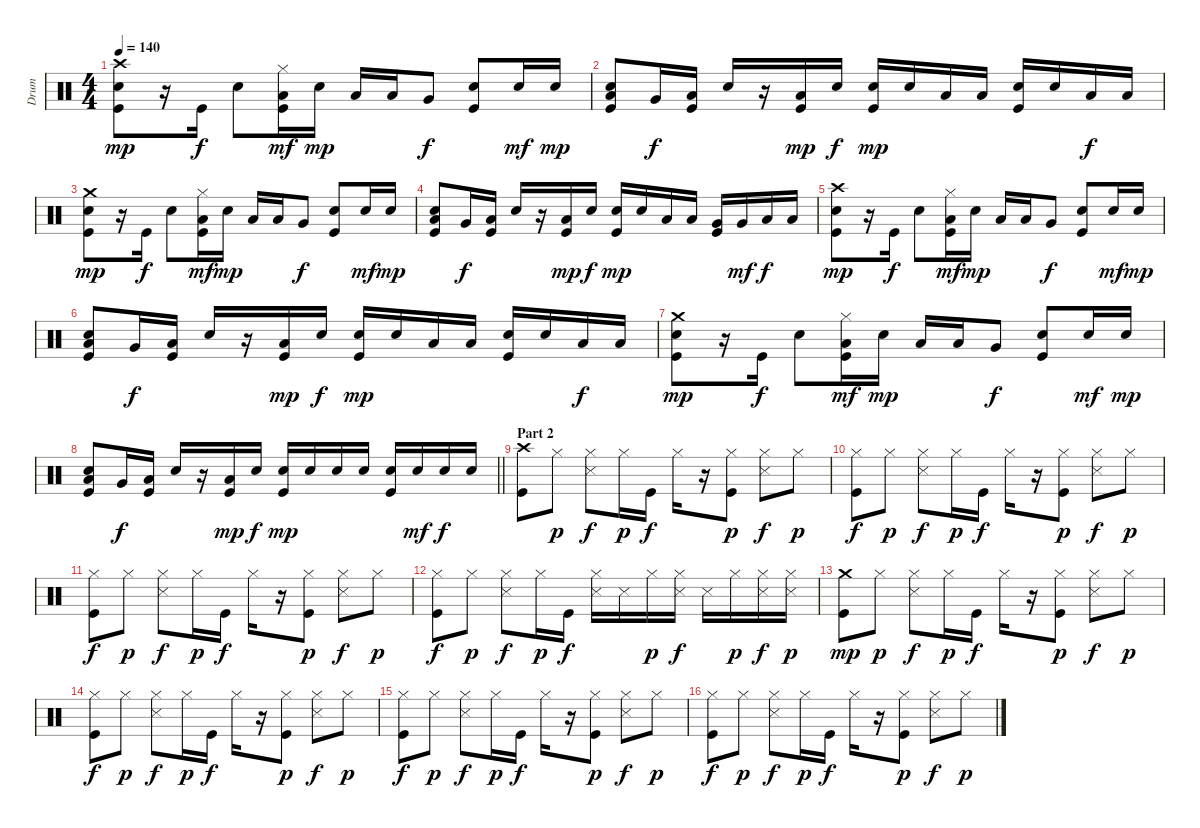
\track ("Drum" "Drum") {instrument percussion}
\staff {score}
\articulation defaults
\ts (4 4)
\tempo 140
\clef neutral
\ks c
("Crash high (hit)" "Electric Snare (hit)" "Kick (hit)").8{dy mp} r.16 "Kick (hit)".16{dy f} "Electric Snare (hit)".8 ("Low Tom (hit)" "Hi-Hat (closed)" "Kick (hit)").16{dy mf} "Electric Snare (hit)".16{dy mp} "Low Tom (hit)".16 "Low Floor Tom (hit)".16 "Very Low Tom (hit)".8{dy f} ("Electric Snare (hit)" "Kick (hit)").8 "Electric Snare (hit)".16{dy mf} "Electric Snare (hit)".16{dy mp} |
("Low Tom (hit)" "Electric Snare (hit)" "Kick (hit)").8 "Very Low Tom (hit)".16{dy f} ("Low Floor Tom (hit)" "Kick (hit)").16 "Electric Snare (hit)".16 r.16 ("Low Tom (hit)" "Kick (hit)").16{dy mp} "Electric Snare (hit)".16{dy f} ("Electric Snare (hit)" "Kick (hit)").16{dy mp} "Electric Snare (hit)".16 "Low Tom (hit)".16 "Low Tom (hit)".16 ("Electric Snare (hit)" "Kick (hit)").16 "Electric Snare (hit)".16 "Low Floor Tom (hit)".16{dy f} "Low Floor Tom (hit)".16 |
("Crash medium (hit)" "Electric Snare (hit)" "Kick (hit)").8{dy mp} r.16 "Kick (hit)".16{dy f} "Electric Snare (hit)".8 ("Low Tom (hit)" "Hi-Hat (closed)" "Kick (hit)").16{dy mf} "Electric Snare (hit)".16{dy mp} "Low Tom (hit)".16 "Low Floor Tom (hit)".16 "Very Low Tom (hit)".8{dy f} ("Electric Snare (hit)" "Kick (hit)").8 "Electric Snare (hit)".16{dy mf} "Electric Snare (hit)".16{dy mp} |
("Low Tom (hit)" "Electric Snare (hit)" "Kick (hit)").8 "Very Low Tom (hit)".16{dy f} ("Low Floor Tom (hit)" "Kick (hit)").16 "Electric Snare (hit)".16 r.16 ("Low Tom (hit)" "Kick (hit)").16{dy mp} "Electric Snare (hit)".16{dy f} ("Electric Snare (hit)" "Kick (hit)").16{dy mp} "Electric Snare (hit)".16 "Low Tom (hit)".16 "Low Tom (hit)".16 ("Very Low Tom (hit)" "Kick (hit)").16 "Very Low Tom (hit)".16{dy mf} "Low Floor Tom (hit)".16{dy f} "Low Floor Tom (hit)".16 |
("Crash high (hit)" "Electric Snare (hit)" "Kick (hit)").8{dy mp} r.16 "Kick (hit)".16{dy f} "Electric Snare (hit)".8 ("Low Tom (hit)" "Hi-Hat (closed)" "Kick (hit)").16{dy mf} "Electric Snare (hit)".16{dy mp} "Low Tom (hit)".16 "Low Floor Tom (hit)".16 "Very Low Tom (hit)".8{dy f} ("Electric Snare (hit)" "Kick (hit)").8 "Electric Snare (hit)".16{dy mf} "Electric Snare (hit)".16{dy mp} |
("Low Tom (hit)" "Electric Snare (hit)" "Kick (hit)").8 "Very Low Tom (hit)".16{dy f} ("Low Floor Tom (hit)" "Kick (hit)").16 "Electric Snare (hit)".16 r.16 ("Low Tom (hit)" "Kick (hit)").16{dy mp} "Electric Snare (hit)".16{dy f} ("Electric Snare (hit)" "Kick (hit)").16{dy mp} "Electric Snare (hit)".16 "Low Tom (hit)".16 "Low Tom (hit)".16 ("Electric Snare (hit)" "Kick (hit)").16 "Electric Snare (hit)".16 "Low Floor Tom (hit)".16{dy f} "Low Floor Tom (hit)".16 |
("Crash medium (hit)" "Electric Snare (hit)" "Kick (hit)").8{dy mp} r.16 "Kick (hit)".16{dy f} "Electric Snare (hit)".8 ("Low Tom (hit)" "Hi-Hat (closed)" "Kick (hit)").16{dy mf} "Electric Snare (hit)".16{dy mp} "Low Tom (hit)".16 "Low Floor Tom (hit)".16 "Very Low Tom (hit)".8{dy f} ("Electric Snare (hit)" "Kick (hit)").8 "Electric Snare (hit)".16{dy mf} "Electric Snare (hit)".16{dy mp} |
\barLineRight lightlight
("Low Tom (hit)" "Electric Snare (hit)" "Kick (hit)").8 "Very Low Tom (hit)".16{dy f} ("Low Floor Tom (hit)" "Kick (hit)").16 "Electric Snare (hit)".16 r.16 ("Low Tom (hit)" "Kick (hit)").16{dy mp} "Electric Snare (hit)".16{dy f} ("Electric Snare (hit)" "Kick (hit)").16{dy mp} "Electric Snare (hit)".16 "Snare (hit) 2".16 "Snare (hit) 2".16 ("Electric Snare (hit)" "Kick (hit)").16 "Electric Snare (hit)".16{dy mf} "Electric Snare (hit)".16{dy f} "Electric Snare (hit)".16 |
\section ("" "Part 2")
("Crash high (hit)" "Kick (hit)").8 "Hi-Hat (closed)".8{dy p} ("Hi-Hat (closed)" "Snare (side stick) 3").8{dy f} "Hi-Hat (closed)".16{dy p} "Kick (hit)".16{dy f} "Hi-Hat (closed)".16 r.16 ("Hi-Hat (closed)" "Kick (hit)").8{dy p} ("Hi-Hat (closed)" "Snare (side stick) 3").8{dy f} "Hi-Hat (closed)".8{dy p} |
("Hi-Hat (closed)" "Kick (hit)").8{dy f} "Hi-Hat (closed)".8{dy p} ("Hi-Hat (closed)" "Snare (side stick) 3").8{dy f} "Hi-Hat (closed)".16{dy p} "Kick (hit)".16{dy f} "Hi-Hat (closed)".16 r.16 ("Hi-Hat (closed)" "Kick (hit)").8{dy p} ("Hi-Hat (closed)" "Snare (side stick) 3").8{dy f} "Hi-Hat (closed)".8{dy p} |
("Hi-Hat (closed)" "Kick (hit)").8{dy f} "Hi-Hat (closed)".8{dy p} ("Hi-Hat (closed)" "Snare (side stick) 3").8{dy f} "Hi-Hat (closed)".16{dy p} "Kick (hit)".16{dy f} "Hi-Hat (closed)".16 r.16 ("Hi-Hat (closed)" "Kick (hit)").8{dy p} ("Hi-Hat (closed)" "Snare (side stick) 3").8{dy f} "Hi-Hat (closed)".8{dy p} |
("Hi-Hat (closed)" "Kick (hit)").8{dy f} "Hi-Hat (closed)".8{dy p} ("Hi-Hat (closed)" "Snare (side stick) 3").8{dy f} "Hi-Hat (closed)".16{dy p} "Kick (hit)".16{dy f} ("Hi-Hat (closed)" "Metronome (hit)").16 "Snare (side stick) 3".16 "Hi-Hat (closed)".16{dy p} ("Hi-Hat (closed)" "Metronome (hit)").16{dy f} "Snare (side stick) 3".16 "Hi-Hat (closed)".16{dy p} ("Hi-Hat (closed)" "Metronome (hit)").16{dy f} ("Hi-Hat (closed)" "Snare (side stick) 3").16{dy p} |
("Crash medium (hit)" "Kick (hit)").8{dy mp} "Hi-Hat (closed)".8{dy p} ("Hi-Hat (closed)" "Snare (side stick) 3").8{dy f} "Hi-Hat (closed)".16{dy p} "Kick (hit)".16{dy f} "Hi-Hat (closed)".16 r.16 ("Hi-Hat (closed)" "Kick (hit)").8{dy p} ("Hi-Hat (closed)" "Snare (side stick) 3").8{dy f} "Hi-Hat (closed)".8{dy p} |
("Hi-Hat (closed)" "Kick (hit)").8{dy f} "Hi-Hat (closed)".8{dy p} ("Hi-Hat (closed)" "Snare (side stick) 3").8{dy f} "Hi-Hat (closed)".16{dy p} "Kick (hit)".16{dy f} "Hi-Hat (closed)".16 r.16 ("Hi-Hat (closed)" "Kick (hit)").8{dy p} ("Hi-Hat (closed)" "Snare (side stick) 3").8{dy f} "Hi-Hat (closed)".8{dy p} |
("Hi-Hat (closed)" "Kick (hit)").8{dy f} "Hi-Hat (closed)".8{dy p} ("Hi-Hat (closed)" "Snare (side stick) 3").8{dy f} "Hi-Hat (closed)".16{dy p} "Kick (hit)".16{dy f} "Hi-Hat (closed)".16 r.16 ("Hi-Hat (closed)" "Kick (hit)").8{dy p} ("Hi-Hat (closed)" "Snare (side stick) 3").8{dy f} "Hi-Hat (closed)".8{dy p} |
("Hi-Hat (closed)" "Kick (hit)").8{dy f} "Hi-Hat (closed)".8{dy p} ("Hi-Hat (closed)" "Snare (side stick) 3").8{dy f} "Hi-Hat (closed)".16{dy p} "Kick (hit)".16{dy f} "Hi-Hat (closed)".16 r.16 ("Hi-Hat (closed)" "Kick (hit)").8{dy p} ("Hi-Hat (closed)" "Snare (side stick) 3").8{dy f} "Hi-Hat (closed)".8{dy p}
